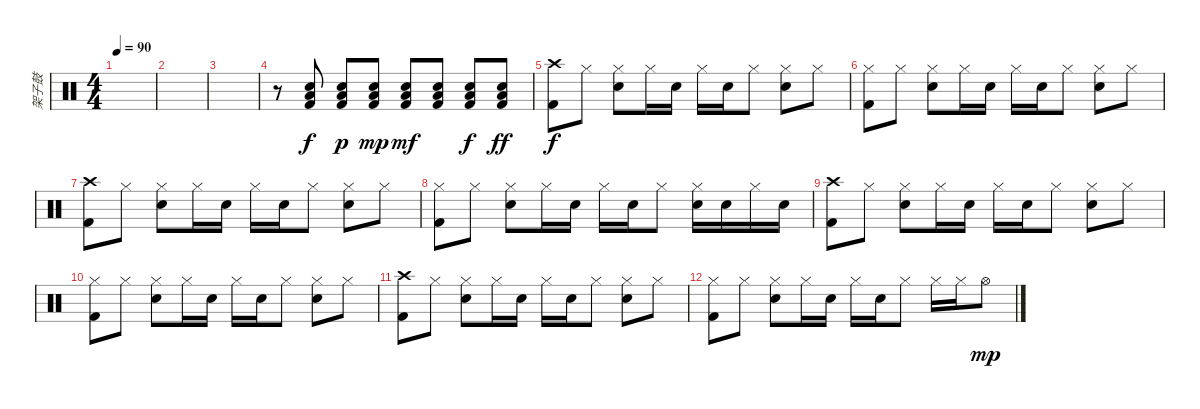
\track ("架子鼓" "架子鼓") {instrument percussion}
\staff {score}
\articulation defaults
\ts (4 4)
\tempo 90
\clef neutral
\ks c
|
|
|
r.8 ("Snare (hit) 2" "Low Floor Tom (hit)" "Kick (hit) 2").8 ("Snare (hit) 2" "Low Floor Tom (hit)" "Kick (hit) 2").8{dy p} ("Snare (hit) 2" "Low Floor Tom (hit)" "Kick (hit) 2").8{dy mp} ("Snare (hit) 2" "Low Floor Tom (hit)" "Kick (hit) 2").8{dy mf} ("Snare (hit) 2" "Low Floor Tom (hit)" "Kick (hit) 2").8 ("Snare (hit) 2" "Low Floor Tom (hit)" "Kick (hit) 2").8{dy f} ("Snare (hit) 2" "Low Floor Tom (hit)" "Kick (hit) 2").8{dy ff} |
("Crash high (hit)" "Kick (hit) 2").8{dy f} "Hi-Hat (closed)".8 ("Hi-Hat (closed)" "Snare (hit) 2").8 "Hi-Hat (closed)".16 "Snare (hit) 2".16 "Hi-Hat (closed)".16 "Snare (hit) 2".16 "Hi-Hat (closed)".8 ("Hi-Hat (closed)" "Snare (hit) 2").8 "Hi-Hat (closed)".8 |
("Hi-Hat (closed)" "Kick (hit) 2").8 "Hi-Hat (closed)".8 ("Hi-Hat (closed)" "Snare (hit) 2").8 "Hi-Hat (closed)".16 "Snare (hit) 2".16 "Hi-Hat (closed)".16 "Snare (hit) 2".16 "Hi-Hat (closed)".8 ("Hi-Hat (closed)" "Snare (hit) 2").8 "Hi-Hat (closed)".8 |
("Crash high (hit)" "Kick (hit) 2").8 "Hi-Hat (closed)".8 ("Hi-Hat (closed)" "Snare (hit) 2").8 "Hi-Hat (closed)".16 "Snare (hit) 2".16 "Hi-Hat (closed)".16 "Snare (hit) 2".16 "Hi-Hat (closed)".8 ("Hi-Hat (closed)" "Snare (hit) 2").8 "Hi-Hat (closed)".8 |
("Hi-Hat (closed)" "Kick (hit) 2").8 "Hi-Hat (closed)".8 ("Hi-Hat (closed)" "Snare (hit) 2").8 "Hi-Hat (closed)".16 "Snare (hit) 2".16 "Hi-Hat (closed)".16 "Snare (hit) 2".16 "Hi-Hat (closed)".8 ("Hi-Hat (closed)" "Snare (hit) 2").16 "Snare (hit) 2".16 "Hi-Hat (closed)".16 "Snare (hit) 2".16 |
("Crash high (hit)" "Kick (hit) 2").8 "Hi-Hat (closed)".8 ("Hi-Hat (closed)" "Snare (hit) 2").8 "Hi-Hat (closed)".16 "Snare (hit) 2".16 "Hi-Hat (closed)".16 "Snare (hit) 2".16 "Hi-Hat (closed)".8 ("Hi-Hat (closed)" "Snare (hit) 2").8 "Hi-Hat (closed)".8 |
("Hi-Hat (closed)" "Kick (hit) 2").8 "Hi-Hat (closed)".8 ("Hi-Hat (closed)" "Snare (hit) 2").8 "Hi-Hat (closed)".16 "Snare (hit) 2".16 "Hi-Hat (closed)".16 "Snare (hit) 2".16 "Hi-Hat (closed)".8 ("Hi-Hat (closed)" "Snare (hit) 2").8 "Hi-Hat (closed)".8 |
("Crash high (hit)" "Kick (hit) 2").8 "Hi-Hat (closed)".8 ("Hi-Hat (closed)" "Snare (hit) 2").8 "Hi-Hat (closed)".16 "Snare (hit) 2".16 "Hi-Hat (closed)".16 "Snare (hit) 2".16 "Hi-Hat (closed)".8 ("Hi-Hat (closed)" "Snare (hit) 2").8 "Hi-Hat (closed)".8 |
("Hi-Hat (closed)" "Kick (hit) 2").8 "Hi-Hat (closed)".8 ("Hi-Hat (closed)" "Snare (hit) 2").8 "Hi-Hat (closed)".16 "Snare (hit) 2".16 "Hi-Hat (closed)".16 "Snare (hit) 2".16 "Hi-Hat (closed)".8 "Hi-Hat (closed)".16 "Hi-Hat (closed)".16 "Hi-Hat (open)".8{dy mp}
